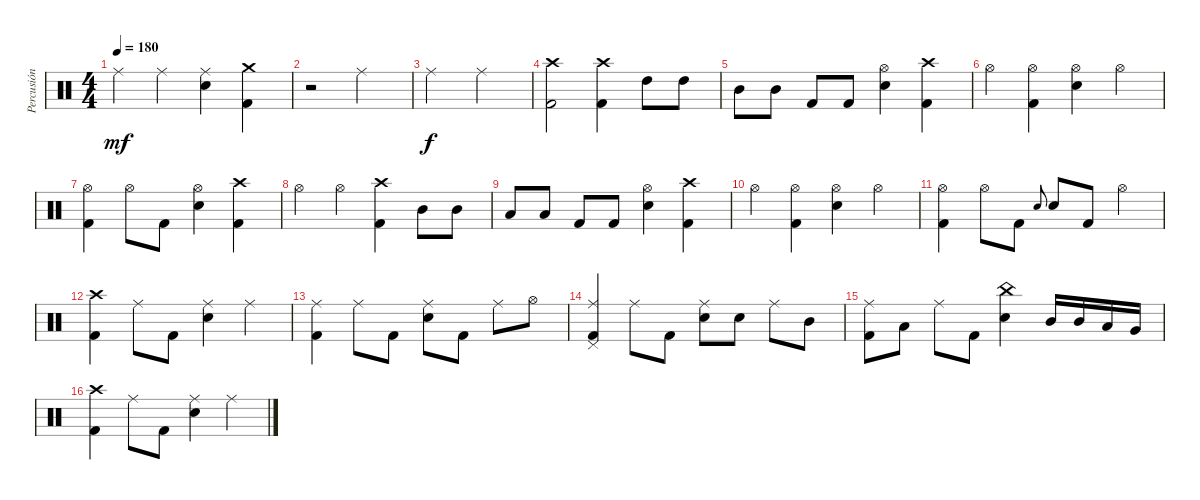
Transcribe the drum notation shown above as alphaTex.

\track ("Percusión" "Percusión") {instrument percussion}
\staff {score}
\articulation defaults
\ts (4 4)
\tempo 180
\clef neutral
\ks c "Ride (middle)".4{dy mf} "Ride (middle)".4
("Ride (middle)" "Snare (hit) 2").4 ("Crash medium (hit)" "Kick (hit) 2").4 |
r.2 "Ride (middle)".2 |
"Ride (middle)".2{dy f} "Ride (middle)".2 |
("Crash high (hit)" "Kick (hit) 2").2 ("Crash high (hit)" "Kick (hit) 2").4 "High Tom (hit)".8 "High Tom (hit)".8 |
"Mid Tom (hit)".8 "Mid Tom (hit)".8 "Kick (hit) 2".8 "Kick (hit) 2".8 ("Hi-Hat (open)" "Snare (hit) 2").4 ("Crash high (hit)" "Kick (hit) 2").4 |
"Hi-Hat (open)".4 ("Hi-Hat (open)" "Kick (hit) 2").4 ("Hi-Hat (open)" "Snare (hit) 2").4 "Hi-Hat (open)".4 |
("Hi-Hat (open)" "Kick (hit) 2").4 "Hi-Hat (open)".8 "Kick (hit) 2".8 ("Hi-Hat (open)" "Snare (hit) 2").4 ("Crash high (hit)" "Kick (hit) 2").4 |
"Hi-Hat (open)".4 "Hi-Hat (open)".4 ("Crash high (hit)" "Kick (hit) 2").4 "Mid Tom (hit)".8 "Mid Tom (hit)".8 |
"Low Tom (hit)".8 "Low Tom (hit)".8 "Kick (hit) 2".8 "Kick (hit) 2".8 ("Hi-Hat (open)" "Snare (hit) 2").4 ("Crash high (hit)" "Kick (hit) 2").4 |
"Hi-Hat (open)".4 ("Hi-Hat (open)" "Kick (hit) 2").4 ("Hi-Hat (open)" "Snare (hit) 2").4 "Hi-Hat (open)".4 |
("Hi-Hat (open)" "Kick (hit) 2").4 "Hi-Hat (open)".8 "Kick (hit) 2".8 "Snare (hit) 2".8{gr onbeat} "Snare (hit) 2".8 "Kick (hit) 2".8 "Hi-Hat (open)".4 |
("Crash high (hit)" "Kick (hit) 2").4 "Ride (middle)".8 "Kick (hit) 2".8 ("Ride (middle)" "Snare (hit) 2").4 "Ride (middle)".4 |
("Ride (middle)" "Kick (hit) 2").4 "Ride (middle)".8 "Kick (hit) 2".8 ("Ride (middle)" "Snare (hit) 2").8 "Kick (hit) 2".8 "Ride (middle)".8 "Hi-Hat (open)".8 |
("Pedal Hi-Hat (hit)" "Ride (middle)" "Kick (hit) 2").4 "Ride (middle)".8 "Kick (hit) 2".8 ("Ride (middle)" "Snare (hit) 2").8 "Snare (hit) 2".8 "Ride (middle)".8 "Mid Tom (hit)".8 |
("Ride (middle)" "Kick (hit) 2").8 "Low Tom (hit)".8 "Ride (middle)".8 "Kick (hit) 2".8 ("China (hit)" "Snare (hit) 2").4 "Mid Tom (hit)".16 "Mid Tom (hit)".16 "Low Tom (hit)".16 "Very Low Tom (hit)".16 |
("Crash high (hit)" "Kick (hit) 2").4 "Ride (middle)".8 "Kick (hit) 2".8 ("Ride (middle)" "Snare (hit) 2").4 "Ride (middle)".4
